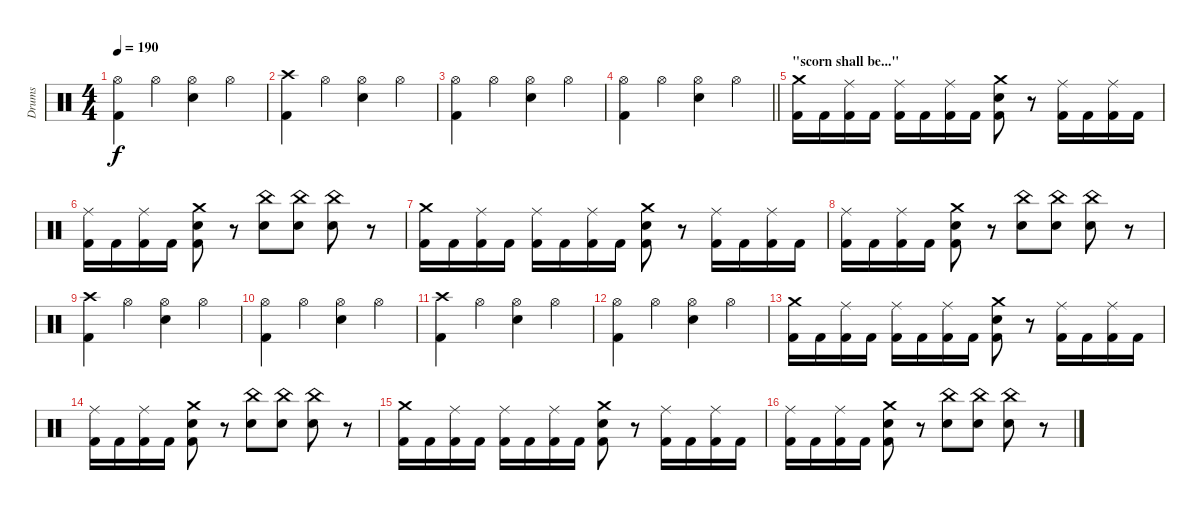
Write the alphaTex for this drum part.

\track ("Drums" "Drums") {instrument percussion}
\staff {score}
\articulation defaults
\ts (4 4)
\tempo 190
\clef neutral
\ks c
("Hi-Hat (open)" "Kick (hit) 2").4{dy f} "Hi-Hat (open)".4 ("Hi-Hat (open)" "Snare (hit) 2").4 "Hi-Hat (open)".4 |
("Crash high (hit)" "Kick (hit) 2").4 "Hi-Hat (open)".4 ("Hi-Hat (open)" "Snare (hit) 2").4 "Hi-Hat (open)".4 |
("Hi-Hat (open)" "Kick (hit) 2").4 "Hi-Hat (open)".4 ("Hi-Hat (open)" "Snare (hit) 2").4 "Hi-Hat (open)".4 |
\barLineRight lightlight
("Hi-Hat (open)" "Kick (hit) 2").4 "Hi-Hat (open)".4 ("Hi-Hat (open)" "Snare (hit) 2").4 "Hi-Hat (open)".4 |
\section ("" "\"scorn shall be...\"")
("Crash medium (hit)" "Kick (hit) 2").16 "Kick (hit) 2".16 ("Ride (middle)" "Kick (hit) 2").16 "Kick (hit) 2".16 ("Ride (middle)" "Kick (hit) 2").16 "Kick (hit) 2".16 ("Ride (middle)" "Kick (hit) 2").16 "Kick (hit) 2".16 ("Crash medium (hit)" "Snare (hit) 2" "Kick (hit) 2").8 r.8 ("Ride (middle)" "Kick (hit) 2").16 "Kick (hit) 2".16 ("Ride (middle)" "Kick (hit) 2").16 "Kick (hit) 2".16 |
("Ride (middle)" "Kick (hit) 2").16 "Kick (hit) 2".16 ("Ride (middle)" "Kick (hit) 2").16 "Kick (hit) 2".16 ("Crash medium (hit)" "Snare (hit) 2" "Kick (hit) 2").8 r.8 ("China (hit)" "Snare (hit) 2").8 ("China (hit)" "Snare (hit) 2").8 ("China (hit)" "Snare (hit) 2").8 r.8 |
("Crash medium (hit)" "Kick (hit) 2").16 "Kick (hit) 2".16 ("Ride (middle)" "Kick (hit) 2").16 "Kick (hit) 2".16 ("Ride (middle)" "Kick (hit) 2").16 "Kick (hit) 2".16 ("Ride (middle)" "Kick (hit) 2").16 "Kick (hit) 2".16 ("Crash medium (hit)" "Snare (hit) 2" "Kick (hit) 2").8 r.8 ("Ride (middle)" "Kick (hit) 2").16 "Kick (hit) 2".16 ("Ride (middle)" "Kick (hit) 2").16 "Kick (hit) 2".16 |
("Ride (middle)" "Kick (hit) 2").16 "Kick (hit) 2".16 ("Ride (middle)" "Kick (hit) 2").16 "Kick (hit) 2".16 ("Crash medium (hit)" "Snare (hit) 2" "Kick (hit) 2").8 r.8 ("China (hit)" "Snare (hit) 2").8 ("China (hit)" "Snare (hit) 2").8 ("China (hit)" "Snare (hit) 2").8 r.8 |
("Crash high (hit)" "Kick (hit) 2").4 "Hi-Hat (open)".4 ("Hi-Hat (open)" "Snare (hit) 2").4 "Hi-Hat (open)".4 |
("Hi-Hat (open)" "Kick (hit) 2").4 "Hi-Hat (open)".4 ("Hi-Hat (open)" "Snare (hit) 2").4 "Hi-Hat (open)".4 |
("Crash high (hit)" "Kick (hit) 2").4 "Hi-Hat (open)".4 ("Hi-Hat (open)" "Snare (hit) 2").4 "Hi-Hat (open)".4 |
("Hi-Hat (open)" "Kick (hit) 2").4 "Hi-Hat (open)".4 ("Hi-Hat (open)" "Snare (hit) 2").4 "Hi-Hat (open)".4 |
("Crash medium (hit)" "Kick (hit) 2").16 "Kick (hit) 2".16 ("Ride (middle)" "Kick (hit) 2").16 "Kick (hit) 2".16 ("Ride (middle)" "Kick (hit) 2").16 "Kick (hit) 2".16 ("Ride (middle)" "Kick (hit) 2").16 "Kick (hit) 2".16 ("Crash medium (hit)" "Snare (hit) 2" "Kick (hit) 2").8 r.8 ("Ride (middle)" "Kick (hit) 2").16 "Kick (hit) 2".16 ("Ride (middle)" "Kick (hit) 2").16 "Kick (hit) 2".16 |
("Ride (middle)" "Kick (hit) 2").16 "Kick (hit) 2".16 ("Ride (middle)" "Kick (hit) 2").16 "Kick (hit) 2".16 ("Crash medium (hit)" "Snare (hit) 2" "Kick (hit) 2").8 r.8 ("China (hit)" "Snare (hit) 2").8 ("China (hit)" "Snare (hit) 2").8 ("China (hit)" "Snare (hit) 2").8 r.8 |
("Crash medium (hit)" "Kick (hit) 2").16 "Kick (hit) 2".16 ("Ride (middle)" "Kick (hit) 2").16 "Kick (hit) 2".16 ("Ride (middle)" "Kick (hit) 2").16 "Kick (hit) 2".16 ("Ride (middle)" "Kick (hit) 2").16 "Kick (hit) 2".16 ("Crash medium (hit)" "Snare (hit) 2" "Kick (hit) 2").8 r.8 ("Ride (middle)" "Kick (hit) 2").16 "Kick (hit) 2".16 ("Ride (middle)" "Kick (hit) 2").16 "Kick (hit) 2".16 |
("Ride (middle)" "Kick (hit) 2").16 "Kick (hit) 2".16 ("Ride (middle)" "Kick (hit) 2").16 "Kick (hit) 2".16 ("Crash medium (hit)" "Snare (hit) 2" "Kick (hit) 2").8 r.8 ("China (hit)" "Snare (hit) 2").8 ("China (hit)" "Snare (hit) 2").8 ("China (hit)" "Snare (hit) 2").8 r.8
